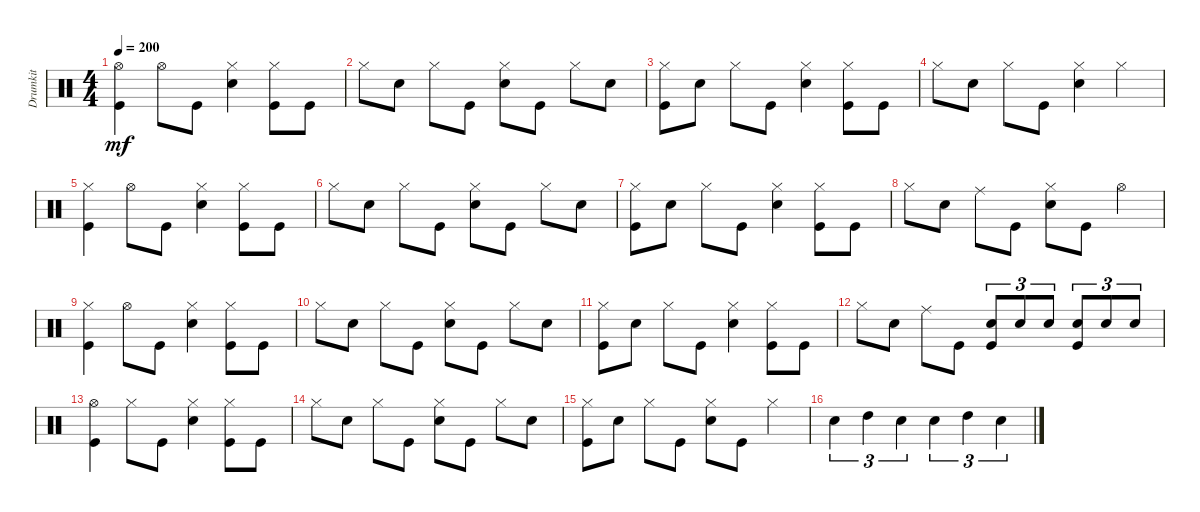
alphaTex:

\track ("Drumkit" "Drumkit") {instrument percussion}
\staff {score}
\articulation defaults
\ts (4 4)
\tempo 200
\clef neutral
\ks c
("Kick (hit)" "Hi-Hat (open)").4{dy mf} "Hi-Hat (open)".8 "Kick (hit)".8 ("Snare (hit) 2" "Hi-Hat (closed)").4 ("Hi-Hat (closed)" "Kick (hit)").8 "Kick (hit)".8 |
"Hi-Hat (closed)".8 "Snare (hit) 2".8 "Hi-Hat (closed)".8 "Kick (hit)".8 ("Hi-Hat (closed)" "Snare (hit) 2").8 "Kick (hit)".8 "Hi-Hat (closed)".8 "Snare (hit) 2".8 |
("Kick (hit)" "Hi-Hat (closed)").8 "Snare (hit) 2".8 "Hi-Hat (closed)".8 "Kick (hit)".8 ("Hi-Hat (closed)" "Snare (hit) 2").4 ("Kick (hit)" "Hi-Hat (closed)").8 "Kick (hit)".8 |
"Hi-Hat (closed)".8 "Snare (hit) 2".8 "Hi-Hat (closed)".8 "Kick (hit)".8 ("Hi-Hat (closed)" "Snare (hit) 2").4 "Hi-Hat (closed)".4 |
("Kick (hit)" "Hi-Hat (closed)").4 "Hi-Hat (open)".8 "Kick (hit)".8 ("Hi-Hat (closed)" "Snare (hit) 2").4 ("Hi-Hat (closed)" "Kick (hit)").8 "Kick (hit)".8 |
"Hi-Hat (closed)".8 "Snare (hit) 2".8 "Hi-Hat (closed)".8 "Kick (hit)".8 ("Hi-Hat (closed)" "Snare (hit) 2").8 "Kick (hit)".8 "Hi-Hat (closed)".8 "Snare (hit) 2".8 |
("Hi-Hat (closed)" "Kick (hit)").8 "Snare (hit) 2".8 "Hi-Hat (closed)".8 "Kick (hit)".8 ("Snare (hit) 2" "Hi-Hat (closed)").4 ("Hi-Hat (closed)" "Kick (hit)").8 "Kick (hit)".8 |
"Hi-Hat (closed)".8 "Snare (hit) 2".8 "Ride (middle)".8 "Kick (hit)".8 ("Hi-Hat (closed)" "Snare (hit) 2").8 "Kick (hit)".8 "Hi-Hat (open)".4 |
("Kick (hit)" "Hi-Hat (closed)").4 "Hi-Hat (open)".8 "Kick (hit)".8 ("Hi-Hat (closed)" "Snare (hit) 2").4 ("Hi-Hat (closed)" "Kick (hit)").8 "Kick (hit)".8 |
"Hi-Hat (closed)".8 "Snare (hit) 2".8 "Hi-Hat (closed)".8 "Kick (hit)".8 ("Hi-Hat (closed)" "Snare (hit) 2").8 "Kick (hit)".8 "Hi-Hat (closed)".8 "Snare (hit) 2".8 |
("Hi-Hat (closed)" "Kick (hit)").8 "Snare (hit) 2".8 "Hi-Hat (closed)".8 "Kick (hit)".8 ("Snare (hit) 2" "Hi-Hat (closed)").4 ("Hi-Hat (closed)" "Kick (hit)").8 "Kick (hit)".8 |
"Hi-Hat (closed)".8 "Snare (hit) 2".8 "Ride (middle)".8 "Kick (hit)".8 ("Kick (hit)" "Snare (hit) 2").8{tu (3 2)} "Snare (hit) 2".8{tu (3 2)} "Snare (hit) 2".8{tu (3 2)} ("Kick (hit)" "Snare (hit) 2").8{tu (3 2)} "Snare (hit) 2".8{tu (3 2)} "Snare (hit) 2".8{tu (3 2)} |
("Hi-Hat (open)" "Kick (hit)").4 "Hi-Hat (closed)".8 "Kick (hit)".8 ("Snare (hit) 2" "Hi-Hat (closed)").4 ("Hi-Hat (closed)" "Kick (hit)").8 "Kick (hit)".8 |
"Hi-Hat (closed)".8 "Snare (hit) 2".8 "Hi-Hat (closed)".8 "Kick (hit)".8 ("Snare (hit) 2" "Hi-Hat (closed)").8 "Kick (hit)".8 "Hi-Hat (closed)".8 "Snare (hit) 2".8 |
("Hi-Hat (closed)" "Kick (hit)").8 "Snare (hit) 2".8 "Hi-Hat (closed)".8 "Kick (hit)".8 ("Hi-Hat (closed)" "Snare (hit) 2").8 "Kick (hit)".8 "Hi-Hat (closed)".4 |
"Snare (hit) 2".4{tu (3 2)} "High Tom (hit)".4{tu (3 2)} "Snare (hit) 2".4{tu (3 2)} "Snare (hit) 2".4{tu (3 2)} "High Tom (hit)".4{tu (3 2)} "Snare (hit) 2".4{tu (3 2)}
